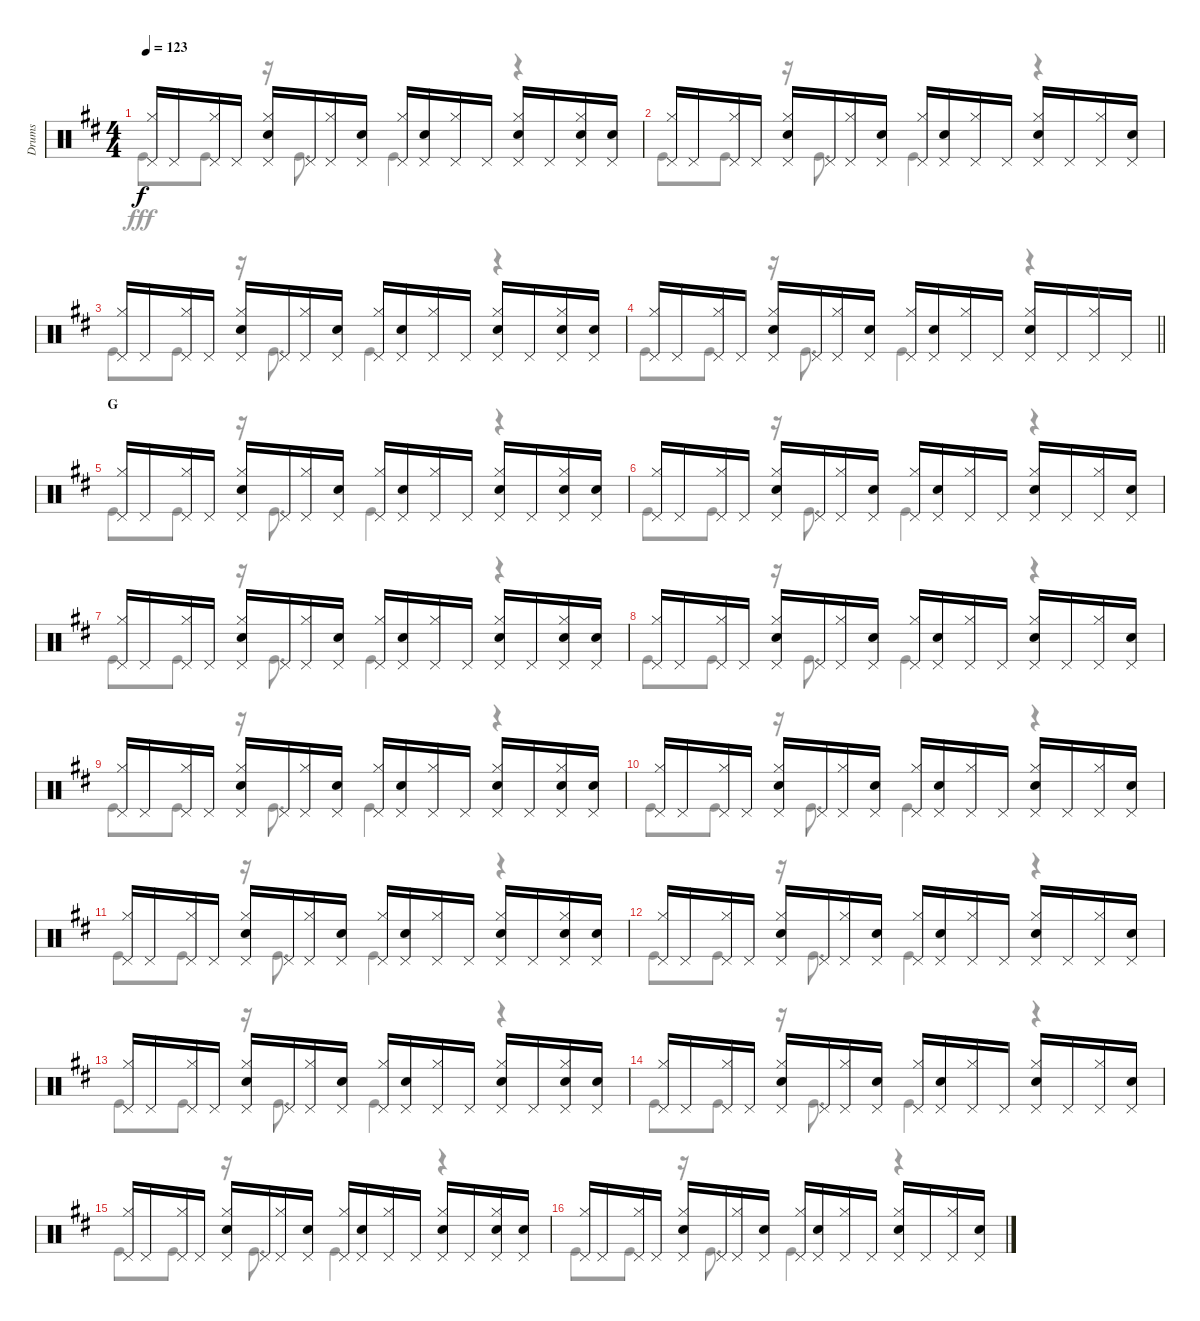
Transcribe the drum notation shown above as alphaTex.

\track ("Drums" "Drums") {instrument percussion}
\staff {score}
\articulation defaults
\voice
\ts (4 4)
\tempo 123
\clef neutral
\ks d
("Hi-Hat (closed)" "Pedal Hi-Hat (hit)").16{dy f} "Pedal Hi-Hat (hit)".16 ("Hi-Hat (closed)" "Pedal Hi-Hat (hit)").16 "Pedal Hi-Hat (hit)".16 ("Hi-Hat (closed)" "Snare (hit) 2" "Pedal Hi-Hat (hit)").16 "Pedal Hi-Hat (hit)".16 ("Hi-Hat (closed)" "Pedal Hi-Hat (hit)").16 ("Pedal Hi-Hat (hit)" "Snare (hit) 2").16 ("Hi-Hat (closed)" "Pedal Hi-Hat (hit)").16 ("Pedal Hi-Hat (hit)" "Snare (hit) 2").16 ("Hi-Hat (closed)" "Pedal Hi-Hat (hit)").16 "Pedal Hi-Hat (hit)".16 ("Hi-Hat (closed)" "Snare (hit) 2" "Pedal Hi-Hat (hit)").16 "Pedal Hi-Hat (hit)".16 ("Hi-Hat (closed)" "Snare (hit) 2" "Pedal Hi-Hat (hit)").16 ("Pedal Hi-Hat (hit)" "Snare (hit) 2").16 |
("Hi-Hat (closed)" "Pedal Hi-Hat (hit)").16 "Pedal Hi-Hat (hit)".16 ("Hi-Hat (closed)" "Pedal Hi-Hat (hit)").16 "Pedal Hi-Hat (hit)".16 ("Hi-Hat (closed)" "Snare (hit) 2" "Pedal Hi-Hat (hit)").16 "Pedal Hi-Hat (hit)".16 ("Hi-Hat (closed)" "Pedal Hi-Hat (hit)").16 ("Pedal Hi-Hat (hit)" "Snare (hit) 2").16 ("Hi-Hat (closed)" "Pedal Hi-Hat (hit)").16 ("Pedal Hi-Hat (hit)" "Snare (hit) 2").16 ("Hi-Hat (closed)" "Pedal Hi-Hat (hit)").16 "Pedal Hi-Hat (hit)".16 ("Hi-Hat (closed)" "Snare (hit) 2" "Pedal Hi-Hat (hit)").16 "Pedal Hi-Hat (hit)".16 ("Hi-Hat (closed)" "Pedal Hi-Hat (hit)").16 ("Pedal Hi-Hat (hit)" "Snare (hit) 2").16 |
("Hi-Hat (closed)" "Pedal Hi-Hat (hit)").16 "Pedal Hi-Hat (hit)".16 ("Hi-Hat (closed)" "Pedal Hi-Hat (hit)").16 "Pedal Hi-Hat (hit)".16 ("Hi-Hat (closed)" "Snare (hit) 2" "Pedal Hi-Hat (hit)").16 "Pedal Hi-Hat (hit)".16 ("Hi-Hat (closed)" "Pedal Hi-Hat (hit)").16 ("Pedal Hi-Hat (hit)" "Snare (hit) 2").16 ("Hi-Hat (closed)" "Pedal Hi-Hat (hit)").16 ("Pedal Hi-Hat (hit)" "Snare (hit) 2").16 ("Hi-Hat (closed)" "Pedal Hi-Hat (hit)").16 "Pedal Hi-Hat (hit)".16 ("Hi-Hat (closed)" "Snare (hit) 2" "Pedal Hi-Hat (hit)").16 "Pedal Hi-Hat (hit)".16 ("Hi-Hat (closed)" "Snare (hit) 2" "Pedal Hi-Hat (hit)").16 ("Pedal Hi-Hat (hit)" "Snare (hit) 2").16 |
\barLineRight lightlight
("Hi-Hat (closed)" "Pedal Hi-Hat (hit)").16 "Pedal Hi-Hat (hit)".16 ("Hi-Hat (closed)" "Pedal Hi-Hat (hit)").16 "Pedal Hi-Hat (hit)".16 ("Hi-Hat (closed)" "Snare (hit) 2" "Pedal Hi-Hat (hit)").16 "Pedal Hi-Hat (hit)".16 ("Hi-Hat (closed)" "Pedal Hi-Hat (hit)").16 ("Pedal Hi-Hat (hit)" "Snare (hit) 2").16 ("Hi-Hat (closed)" "Pedal Hi-Hat (hit)").16 ("Pedal Hi-Hat (hit)" "Snare (hit) 2").16 ("Hi-Hat (closed)" "Pedal Hi-Hat (hit)").16 "Pedal Hi-Hat (hit)".16 ("Hi-Hat (closed)" "Snare (hit) 2" "Pedal Hi-Hat (hit)").16 "Pedal Hi-Hat (hit)".16 ("Hi-Hat (closed)" "Pedal Hi-Hat (hit)").16 "Pedal Hi-Hat (hit)".16 |
\section ("" "G")
("Hi-Hat (closed)" "Pedal Hi-Hat (hit)").16 "Pedal Hi-Hat (hit)".16 ("Hi-Hat (closed)" "Pedal Hi-Hat (hit)").16 "Pedal Hi-Hat (hit)".16 ("Hi-Hat (closed)" "Snare (hit) 2" "Pedal Hi-Hat (hit)").16 "Pedal Hi-Hat (hit)".16 ("Hi-Hat (closed)" "Pedal Hi-Hat (hit)").16 ("Pedal Hi-Hat (hit)" "Snare (hit) 2").16 ("Hi-Hat (closed)" "Pedal Hi-Hat (hit)").16 ("Pedal Hi-Hat (hit)" "Snare (hit) 2").16 ("Hi-Hat (closed)" "Pedal Hi-Hat (hit)").16 "Pedal Hi-Hat (hit)".16 ("Hi-Hat (closed)" "Snare (hit) 2" "Pedal Hi-Hat (hit)").16 "Pedal Hi-Hat (hit)".16 ("Hi-Hat (closed)" "Snare (hit) 2" "Pedal Hi-Hat (hit)").16 ("Pedal Hi-Hat (hit)" "Snare (hit) 2").16 |
("Hi-Hat (closed)" "Pedal Hi-Hat (hit)").16 "Pedal Hi-Hat (hit)".16 ("Hi-Hat (closed)" "Pedal Hi-Hat (hit)").16 "Pedal Hi-Hat (hit)".16 ("Hi-Hat (closed)" "Snare (hit) 2" "Pedal Hi-Hat (hit)").16 "Pedal Hi-Hat (hit)".16 ("Hi-Hat (closed)" "Pedal Hi-Hat (hit)").16 ("Pedal Hi-Hat (hit)" "Snare (hit) 2").16 ("Hi-Hat (closed)" "Pedal Hi-Hat (hit)").16 ("Pedal Hi-Hat (hit)" "Snare (hit) 2").16 ("Hi-Hat (closed)" "Pedal Hi-Hat (hit)").16 "Pedal Hi-Hat (hit)".16 ("Hi-Hat (closed)" "Snare (hit) 2" "Pedal Hi-Hat (hit)").16 "Pedal Hi-Hat (hit)".16 ("Hi-Hat (closed)" "Pedal Hi-Hat (hit)").16 ("Pedal Hi-Hat (hit)" "Snare (hit) 2").16 |
("Hi-Hat (closed)" "Pedal Hi-Hat (hit)").16 "Pedal Hi-Hat (hit)".16 ("Hi-Hat (closed)" "Pedal Hi-Hat (hit)").16 "Pedal Hi-Hat (hit)".16 ("Hi-Hat (closed)" "Snare (hit) 2" "Pedal Hi-Hat (hit)").16 "Pedal Hi-Hat (hit)".16 ("Hi-Hat (closed)" "Pedal Hi-Hat (hit)").16 ("Pedal Hi-Hat (hit)" "Snare (hit) 2").16 ("Hi-Hat (closed)" "Pedal Hi-Hat (hit)").16 ("Pedal Hi-Hat (hit)" "Snare (hit) 2").16 ("Hi-Hat (closed)" "Pedal Hi-Hat (hit)").16 "Pedal Hi-Hat (hit)".16 ("Hi-Hat (closed)" "Snare (hit) 2" "Pedal Hi-Hat (hit)").16 "Pedal Hi-Hat (hit)".16 ("Hi-Hat (closed)" "Snare (hit) 2" "Pedal Hi-Hat (hit)").16 ("Pedal Hi-Hat (hit)" "Snare (hit) 2").16 |
("Hi-Hat (closed)" "Pedal Hi-Hat (hit)").16 "Pedal Hi-Hat (hit)".16 ("Hi-Hat (closed)" "Pedal Hi-Hat (hit)").16 "Pedal Hi-Hat (hit)".16 ("Hi-Hat (closed)" "Snare (hit) 2" "Pedal Hi-Hat (hit)").16 "Pedal Hi-Hat (hit)".16 ("Hi-Hat (closed)" "Pedal Hi-Hat (hit)").16 ("Pedal Hi-Hat (hit)" "Snare (hit) 2").16 ("Hi-Hat (closed)" "Pedal Hi-Hat (hit)").16 ("Pedal Hi-Hat (hit)" "Snare (hit) 2").16 ("Hi-Hat (closed)" "Pedal Hi-Hat (hit)").16 "Pedal Hi-Hat (hit)".16 ("Hi-Hat (closed)" "Snare (hit) 2" "Pedal Hi-Hat (hit)").16 "Pedal Hi-Hat (hit)".16 ("Hi-Hat (closed)" "Pedal Hi-Hat (hit)").16 ("Pedal Hi-Hat (hit)" "Snare (hit) 2").16 |
("Hi-Hat (closed)" "Pedal Hi-Hat (hit)").16 "Pedal Hi-Hat (hit)".16 ("Hi-Hat (closed)" "Pedal Hi-Hat (hit)").16 "Pedal Hi-Hat (hit)".16 ("Hi-Hat (closed)" "Snare (hit) 2" "Pedal Hi-Hat (hit)").16 "Pedal Hi-Hat (hit)".16 ("Hi-Hat (closed)" "Pedal Hi-Hat (hit)").16 ("Pedal Hi-Hat (hit)" "Snare (hit) 2").16 ("Hi-Hat (closed)" "Pedal Hi-Hat (hit)").16 ("Pedal Hi-Hat (hit)" "Snare (hit) 2").16 ("Hi-Hat (closed)" "Pedal Hi-Hat (hit)").16 "Pedal Hi-Hat (hit)".16 ("Hi-Hat (closed)" "Snare (hit) 2" "Pedal Hi-Hat (hit)").16 "Pedal Hi-Hat (hit)".16 ("Hi-Hat (closed)" "Snare (hit) 2" "Pedal Hi-Hat (hit)").16 ("Pedal Hi-Hat (hit)" "Snare (hit) 2").16 |
("Hi-Hat (closed)" "Pedal Hi-Hat (hit)").16 "Pedal Hi-Hat (hit)".16 ("Hi-Hat (closed)" "Pedal Hi-Hat (hit)").16 "Pedal Hi-Hat (hit)".16 ("Hi-Hat (closed)" "Snare (hit) 2" "Pedal Hi-Hat (hit)").16 "Pedal Hi-Hat (hit)".16 ("Hi-Hat (closed)" "Pedal Hi-Hat (hit)").16 ("Pedal Hi-Hat (hit)" "Snare (hit) 2").16 ("Hi-Hat (closed)" "Pedal Hi-Hat (hit)").16 ("Pedal Hi-Hat (hit)" "Snare (hit) 2").16 ("Hi-Hat (closed)" "Pedal Hi-Hat (hit)").16 "Pedal Hi-Hat (hit)".16 ("Hi-Hat (closed)" "Snare (hit) 2" "Pedal Hi-Hat (hit)").16 "Pedal Hi-Hat (hit)".16 ("Hi-Hat (closed)" "Pedal Hi-Hat (hit)").16 ("Pedal Hi-Hat (hit)" "Snare (hit) 2").16 |
("Hi-Hat (closed)" "Pedal Hi-Hat (hit)").16 "Pedal Hi-Hat (hit)".16 ("Hi-Hat (closed)" "Pedal Hi-Hat (hit)").16 "Pedal Hi-Hat (hit)".16 ("Hi-Hat (closed)" "Snare (hit) 2" "Pedal Hi-Hat (hit)").16 "Pedal Hi-Hat (hit)".16 ("Hi-Hat (closed)" "Pedal Hi-Hat (hit)").16 ("Pedal Hi-Hat (hit)" "Snare (hit) 2").16 ("Hi-Hat (closed)" "Pedal Hi-Hat (hit)").16 ("Pedal Hi-Hat (hit)" "Snare (hit) 2").16 ("Hi-Hat (closed)" "Pedal Hi-Hat (hit)").16 "Pedal Hi-Hat (hit)".16 ("Hi-Hat (closed)" "Snare (hit) 2" "Pedal Hi-Hat (hit)").16 "Pedal Hi-Hat (hit)".16 ("Hi-Hat (closed)" "Snare (hit) 2" "Pedal Hi-Hat (hit)").16 ("Pedal Hi-Hat (hit)" "Snare (hit) 2").16 |
("Hi-Hat (closed)" "Pedal Hi-Hat (hit)").16 "Pedal Hi-Hat (hit)".16 ("Hi-Hat (closed)" "Pedal Hi-Hat (hit)").16 "Pedal Hi-Hat (hit)".16 ("Hi-Hat (closed)" "Snare (hit) 2" "Pedal Hi-Hat (hit)").16 "Pedal Hi-Hat (hit)".16 ("Hi-Hat (closed)" "Pedal Hi-Hat (hit)").16 ("Pedal Hi-Hat (hit)" "Snare (hit) 2").16 ("Hi-Hat (closed)" "Pedal Hi-Hat (hit)").16 ("Pedal Hi-Hat (hit)" "Snare (hit) 2").16 ("Hi-Hat (closed)" "Pedal Hi-Hat (hit)").16 "Pedal Hi-Hat (hit)".16 ("Hi-Hat (closed)" "Snare (hit) 2" "Pedal Hi-Hat (hit)").16 "Pedal Hi-Hat (hit)".16 ("Hi-Hat (closed)" "Pedal Hi-Hat (hit)").16 ("Pedal Hi-Hat (hit)" "Snare (hit) 2").16 |
("Hi-Hat (closed)" "Pedal Hi-Hat (hit)").16 "Pedal Hi-Hat (hit)".16 ("Hi-Hat (closed)" "Pedal Hi-Hat (hit)").16 "Pedal Hi-Hat (hit)".16 ("Hi-Hat (closed)" "Snare (hit) 2" "Pedal Hi-Hat (hit)").16 "Pedal Hi-Hat (hit)".16 ("Hi-Hat (closed)" "Pedal Hi-Hat (hit)").16 ("Pedal Hi-Hat (hit)" "Snare (hit) 2").16 ("Hi-Hat (closed)" "Pedal Hi-Hat (hit)").16 ("Pedal Hi-Hat (hit)" "Snare (hit) 2").16 ("Hi-Hat (closed)" "Pedal Hi-Hat (hit)").16 "Pedal Hi-Hat (hit)".16 ("Hi-Hat (closed)" "Snare (hit) 2" "Pedal Hi-Hat (hit)").16 "Pedal Hi-Hat (hit)".16 ("Hi-Hat (closed)" "Snare (hit) 2" "Pedal Hi-Hat (hit)").16 ("Pedal Hi-Hat (hit)" "Snare (hit) 2").16 |
("Hi-Hat (closed)" "Pedal Hi-Hat (hit)").16 "Pedal Hi-Hat (hit)".16 ("Hi-Hat (closed)" "Pedal Hi-Hat (hit)").16 "Pedal Hi-Hat (hit)".16 ("Hi-Hat (closed)" "Snare (hit) 2" "Pedal Hi-Hat (hit)").16 "Pedal Hi-Hat (hit)".16 ("Hi-Hat (closed)" "Pedal Hi-Hat (hit)").16 ("Pedal Hi-Hat (hit)" "Snare (hit) 2").16 ("Hi-Hat (closed)" "Pedal Hi-Hat (hit)").16 ("Pedal Hi-Hat (hit)" "Snare (hit) 2").16 ("Hi-Hat (closed)" "Pedal Hi-Hat (hit)").16 "Pedal Hi-Hat (hit)".16 ("Hi-Hat (closed)" "Snare (hit) 2" "Pedal Hi-Hat (hit)").16 "Pedal Hi-Hat (hit)".16 ("Hi-Hat (closed)" "Pedal Hi-Hat (hit)").16 ("Pedal Hi-Hat (hit)" "Snare (hit) 2").16 |
("Hi-Hat (closed)" "Pedal Hi-Hat (hit)").16 "Pedal Hi-Hat (hit)".16 ("Hi-Hat (closed)" "Pedal Hi-Hat (hit)").16 "Pedal Hi-Hat (hit)".16 ("Hi-Hat (closed)" "Snare (hit) 2" "Pedal Hi-Hat (hit)").16 "Pedal Hi-Hat (hit)".16 ("Hi-Hat (closed)" "Pedal Hi-Hat (hit)").16 ("Pedal Hi-Hat (hit)" "Snare (hit) 2").16 ("Hi-Hat (closed)" "Pedal Hi-Hat (hit)").16 ("Pedal Hi-Hat (hit)" "Snare (hit) 2").16 ("Hi-Hat (closed)" "Pedal Hi-Hat (hit)").16 "Pedal Hi-Hat (hit)".16 ("Hi-Hat (closed)" "Snare (hit) 2" "Pedal Hi-Hat (hit)").16 "Pedal Hi-Hat (hit)".16 ("Hi-Hat (closed)" "Snare (hit) 2" "Pedal Hi-Hat (hit)").16 ("Pedal Hi-Hat (hit)" "Snare (hit) 2").16 |
("Hi-Hat (closed)" "Pedal Hi-Hat (hit)").16 "Pedal Hi-Hat (hit)".16 ("Hi-Hat (closed)" "Pedal Hi-Hat (hit)").16 "Pedal Hi-Hat (hit)".16 ("Hi-Hat (closed)" "Snare (hit) 2" "Pedal Hi-Hat (hit)").16 "Pedal Hi-Hat (hit)".16 ("Hi-Hat (closed)" "Pedal Hi-Hat (hit)").16 ("Pedal Hi-Hat (hit)" "Snare (hit) 2").16 ("Hi-Hat (closed)" "Pedal Hi-Hat (hit)").16 ("Pedal Hi-Hat (hit)" "Snare (hit) 2").16 ("Hi-Hat (closed)" "Pedal Hi-Hat (hit)").16 "Pedal Hi-Hat (hit)".16 ("Hi-Hat (closed)" "Snare (hit) 2" "Pedal Hi-Hat (hit)").16 "Pedal Hi-Hat (hit)".16 ("Hi-Hat (closed)" "Pedal Hi-Hat (hit)").16 ("Pedal Hi-Hat (hit)" "Snare (hit) 2").16
\voice
\clef neutral
\ottava regular
\simile none
\ks d "Kick (hit)".8{dy fff} "Kick (hit)".8
r.16 "Kick (hit)".8{d} "Kick (hit)".4 r.4 |
"Kick (hit)".8 "Kick (hit)".8 r.16 "Kick (hit)".8{d} "Kick (hit)".4 r.4 |
"Kick (hit)".8 "Kick (hit)".8 r.16 "Kick (hit)".8{d} "Kick (hit)".4 r.4 |
\barLineRight lightlight "Kick (hit)".8 "Kick (hit)".8
r.16 "Kick (hit)".8{d} "Kick (hit)".4 r.4 |
"Kick (hit)".8 "Kick (hit)".8 r.16 "Kick (hit)".8{d} "Kick (hit)".4 r.4 |
"Kick (hit)".8 "Kick (hit)".8 r.16 "Kick (hit)".8{d} "Kick (hit)".4 r.4 |
"Kick (hit)".8 "Kick (hit)".8 r.16 "Kick (hit)".8{d} "Kick (hit)".4 r.4 |
"Kick (hit)".8 "Kick (hit)".8 r.16 "Kick (hit)".8{d} "Kick (hit)".4 r.4 |
"Kick (hit)".8 "Kick (hit)".8 r.16 "Kick (hit)".8{d} "Kick (hit)".4 r.4 |
"Kick (hit)".8 "Kick (hit)".8 r.16 "Kick (hit)".8{d} "Kick (hit)".4 r.4 |
"Kick (hit)".8 "Kick (hit)".8 r.16 "Kick (hit)".8{d} "Kick (hit)".4 r.4 |
"Kick (hit)".8 "Kick (hit)".8 r.16 "Kick (hit)".8{d} "Kick (hit)".4 r.4 |
"Kick (hit)".8 "Kick (hit)".8 r.16 "Kick (hit)".8{d} "Kick (hit)".4 r.4 |
"Kick (hit)".8 "Kick (hit)".8 r.16 "Kick (hit)".8{d} "Kick (hit)".4 r.4 |
"Kick (hit)".8 "Kick (hit)".8 r.16 "Kick (hit)".8{d} "Kick (hit)".4 r.4 |
"Kick (hit)".8 "Kick (hit)".8 r.16 "Kick (hit)".8{d} "Kick (hit)".4 r.4
